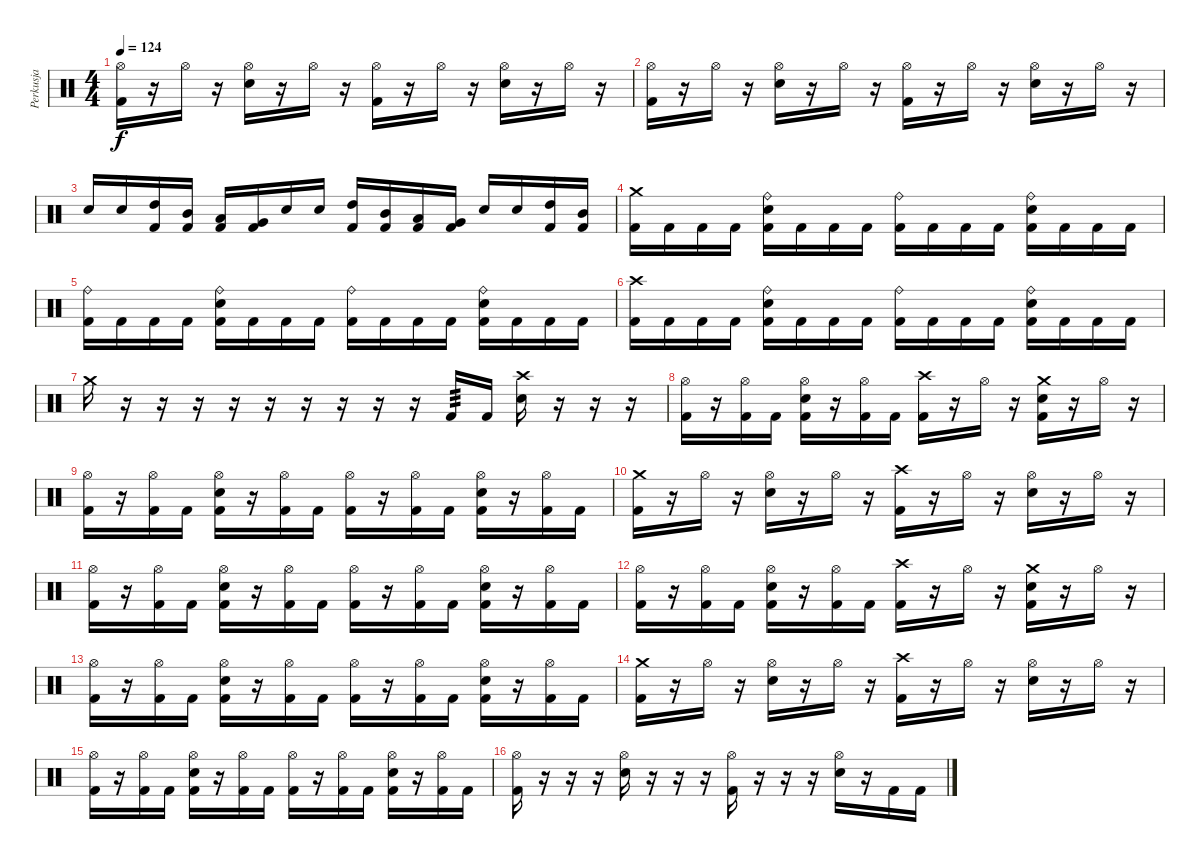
\track ("Perkusja" "Perkusja") {instrument percussion}
\staff {score}
\articulation defaults
\ts (4 4)
\tempo 124
\clef neutral
\ks c
("Hi-Hat (open)" "Kick (hit) 2").16{dy f} r.16 "Hi-Hat (open)".16 r.16 ("Snare (hit) 2" "Hi-Hat (open)").16 r.16 "Hi-Hat (open)".16 r.16 ("Hi-Hat (open)" "Kick (hit) 2").16 r.16 "Hi-Hat (open)".16 r.16 ("Snare (hit) 2" "Hi-Hat (open)").16 r.16 "Hi-Hat (open)".16 r.16 |
("Hi-Hat (open)" "Kick (hit) 2").16 r.16 "Hi-Hat (open)".16 r.16 ("Snare (hit) 2" "Hi-Hat (open)").16 r.16 "Hi-Hat (open)".16 r.16 ("Hi-Hat (open)" "Kick (hit) 2").16 r.16 "Hi-Hat (open)".16 r.16 ("Snare (hit) 2" "Hi-Hat (open)").16 r.16 "Hi-Hat (open)".16 r.16 |
"Snare (hit) 2".16 "Snare (hit) 2".16 ("High Tom (hit)" "Kick (hit) 2").16 ("Mid Tom (hit)" "Kick (hit) 2").16 ("Low Tom (hit)" "Kick (hit) 2").16 ("Very Low Tom (hit)" "Kick (hit) 2").16 "Snare (hit) 2".16 "Snare (hit) 2".16 ("High Tom (hit)" "Kick (hit) 2").16 ("Mid Tom (hit)" "Kick (hit) 2").16 ("Low Tom (hit)" "Kick (hit) 2").16 ("Very Low Tom (hit)" "Kick (hit) 2").16 "Snare (hit) 2".16 "Snare (hit) 2".16 ("High Tom (hit)" "Kick (hit) 2").16 ("Mid Tom (hit)" "Kick (hit) 2").16 |
("Crash medium (hit)" "Kick (hit) 2").16 "Kick (hit) 2".16 "Kick (hit) 2".16 "Kick (hit) 2".16 ("Ride (bell)" "Snare (hit) 2" "Kick (hit) 2").16 "Kick (hit) 2".16 "Kick (hit) 2".16 "Kick (hit) 2".16 ("Ride (bell)" "Kick (hit) 2").16 "Kick (hit) 2".16 "Kick (hit) 2".16 "Kick (hit) 2".16 ("Ride (bell)" "Snare (hit) 2" "Kick (hit) 2").16 "Kick (hit) 2".16 "Kick (hit) 2".16 "Kick (hit) 2".16 |
("Ride (bell)" "Kick (hit) 2").16 "Kick (hit) 2".16 "Kick (hit) 2".16 "Kick (hit) 2".16 ("Ride (bell)" "Snare (hit) 2" "Kick (hit) 2").16 "Kick (hit) 2".16 "Kick (hit) 2".16 "Kick (hit) 2".16 ("Ride (bell)" "Kick (hit) 2").16 "Kick (hit) 2".16 "Kick (hit) 2".16 "Kick (hit) 2".16 ("Ride (bell)" "Snare (hit) 2" "Kick (hit) 2").16 "Kick (hit) 2".16 "Kick (hit) 2".16 "Kick (hit) 2".16 |
("Crash high (hit)" "Kick (hit) 2").16 "Kick (hit) 2".16 "Kick (hit) 2".16 "Kick (hit) 2".16 ("Ride (bell)" "Snare (hit) 2" "Kick (hit) 2").16 "Kick (hit) 2".16 "Kick (hit) 2".16 "Kick (hit) 2".16 ("Ride (bell)" "Kick (hit) 2").16 "Kick (hit) 2".16 "Kick (hit) 2".16 "Kick (hit) 2".16 ("Ride (bell)" "Snare (hit) 2" "Kick (hit) 2").16 "Kick (hit) 2".16 "Kick (hit) 2".16 "Kick (hit) 2".16 |
"Crash medium (hit)".16 r.16 r.16 r.16 r.16 r.16 r.16 r.16 r.16 r.16 "Kick (hit) 2".16{tp 3} "Kick (hit) 2".16 ("Snare (hit) 2" "Crash high (hit)").16 r.16 r.16 r.16 |
("Hi-Hat (open)" "Kick (hit) 2").16 r.16 ("Hi-Hat (open)" "Kick (hit) 2").16 "Kick (hit) 2".16 ("Snare (hit) 2" "Hi-Hat (open)" "Kick (hit) 2").16 r.16 ("Hi-Hat (open)" "Kick (hit) 2").16 "Kick (hit) 2".16 ("Crash high (hit)" "Kick (hit) 2").16 r.16 "Hi-Hat (open)".16 r.16 ("Snare (hit) 2" "Crash medium (hit)" "Kick (hit) 2").16 r.16 "Hi-Hat (open)".16 r.16 |
("Hi-Hat (open)" "Kick (hit) 2").16 r.16 ("Hi-Hat (open)" "Kick (hit) 2").16 "Kick (hit) 2".16 ("Snare (hit) 2" "Hi-Hat (open)" "Kick (hit) 2").16 r.16 ("Hi-Hat (open)" "Kick (hit) 2").16 "Kick (hit) 2".16 ("Hi-Hat (open)" "Kick (hit) 2").16 r.16 ("Hi-Hat (open)" "Kick (hit) 2").16 "Kick (hit) 2".16 ("Snare (hit) 2" "Hi-Hat (open)" "Kick (hit) 2").16 r.16 ("Hi-Hat (open)" "Kick (hit) 2").16 "Kick (hit) 2".16 |
("Crash medium (hit)" "Kick (hit) 2").16 r.16 "Hi-Hat (open)".16 r.16 ("Snare (hit) 2" "Hi-Hat (open)").16 r.16 "Hi-Hat (open)".16 r.16 ("Crash high (hit)" "Kick (hit) 2").16 r.16 "Hi-Hat (open)".16 r.16 ("Snare (hit) 2" "Hi-Hat (open)").16 r.16 "Hi-Hat (open)".16 r.16 |
("Hi-Hat (open)" "Kick (hit) 2").16 r.16 ("Hi-Hat (open)" "Kick (hit) 2").16 "Kick (hit) 2".16 ("Snare (hit) 2" "Hi-Hat (open)" "Kick (hit) 2").16 r.16 ("Hi-Hat (open)" "Kick (hit) 2").16 "Kick (hit) 2".16 ("Hi-Hat (open)" "Kick (hit) 2").16 r.16 ("Hi-Hat (open)" "Kick (hit) 2").16 "Kick (hit) 2".16 ("Snare (hit) 2" "Hi-Hat (open)" "Kick (hit) 2").16 r.16 ("Hi-Hat (open)" "Kick (hit) 2").16 "Kick (hit) 2".16 |
("Hi-Hat (open)" "Kick (hit) 2").16 r.16 ("Hi-Hat (open)" "Kick (hit) 2").16 "Kick (hit) 2".16 ("Snare (hit) 2" "Hi-Hat (open)" "Kick (hit) 2").16 r.16 ("Hi-Hat (open)" "Kick (hit) 2").16 "Kick (hit) 2".16 ("Crash high (hit)" "Kick (hit) 2").16 r.16 "Hi-Hat (open)".16 r.16 ("Snare (hit) 2" "Crash medium (hit)" "Kick (hit) 2").16 r.16 "Hi-Hat (open)".16 r.16 |
("Hi-Hat (open)" "Kick (hit) 2").16 r.16 ("Hi-Hat (open)" "Kick (hit) 2").16 "Kick (hit) 2".16 ("Snare (hit) 2" "Hi-Hat (open)" "Kick (hit) 2").16 r.16 ("Hi-Hat (open)" "Kick (hit) 2").16 "Kick (hit) 2".16 ("Hi-Hat (open)" "Kick (hit) 2").16 r.16 ("Hi-Hat (open)" "Kick (hit) 2").16 "Kick (hit) 2".16 ("Snare (hit) 2" "Hi-Hat (open)" "Kick (hit) 2").16 r.16 ("Hi-Hat (open)" "Kick (hit) 2").16 "Kick (hit) 2".16 |
("Crash medium (hit)" "Kick (hit) 2").16 r.16 "Hi-Hat (open)".16 r.16 ("Snare (hit) 2" "Hi-Hat (open)").16 r.16 "Hi-Hat (open)".16 r.16 ("Crash high (hit)" "Kick (hit) 2").16 r.16 "Hi-Hat (open)".16 r.16 ("Snare (hit) 2" "Hi-Hat (open)").16 r.16 "Hi-Hat (open)".16 r.16 |
("Hi-Hat (open)" "Kick (hit) 2").16 r.16 ("Hi-Hat (open)" "Kick (hit) 2").16 "Kick (hit) 2".16 ("Snare (hit) 2" "Hi-Hat (open)" "Kick (hit) 2").16 r.16 ("Hi-Hat (open)" "Kick (hit) 2").16 "Kick (hit) 2".16 ("Hi-Hat (open)" "Kick (hit) 2").16 r.16 ("Hi-Hat (open)" "Kick (hit) 2").16 "Kick (hit) 2".16 ("Snare (hit) 2" "Hi-Hat (open)" "Kick (hit) 2").16 r.16 ("Hi-Hat (open)" "Kick (hit) 2").16 "Kick (hit) 2".16 |
("Hi-Hat (open)" "Kick (hit) 2").16 r.16 r.16 r.16 ("Snare (hit) 2" "Hi-Hat (open)").16 r.16 r.16 r.16 ("Hi-Hat (open)" "Kick (hit) 2").16 r.16 r.16 r.16 ("Snare (hit) 2" "Hi-Hat (open)").16 r.16 "Kick (hit) 2".16 "Kick (hit) 2".16
